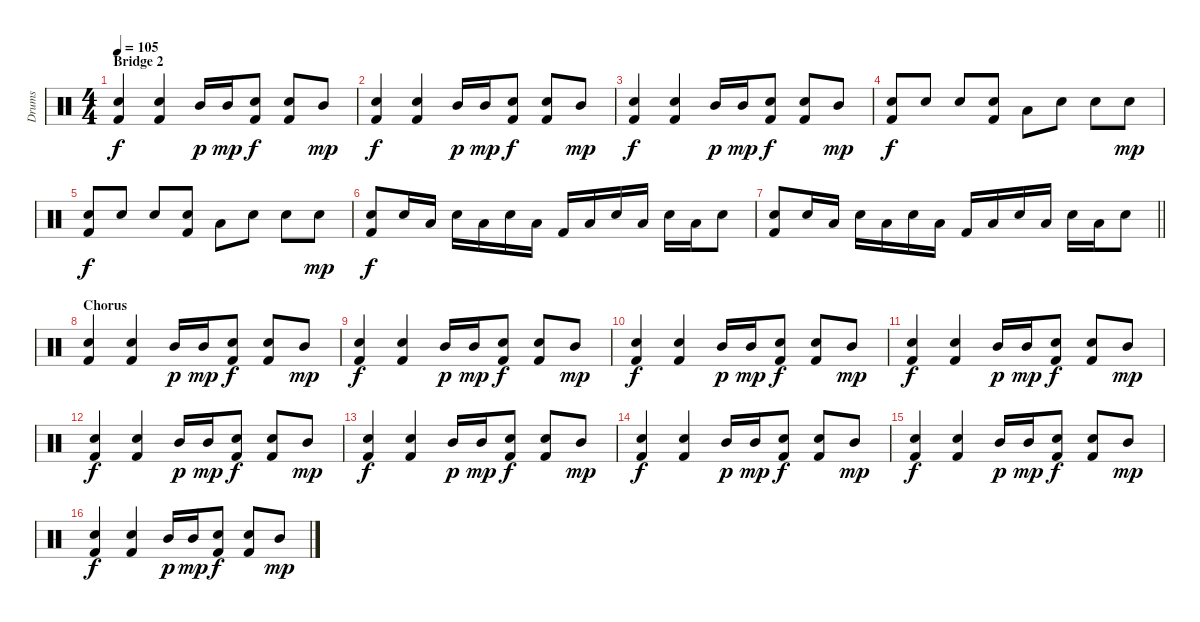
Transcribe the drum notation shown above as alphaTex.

\track ("Drums" "Drums") {instrument percussion}
\staff {score}
\articulation defaults
\ts (4 4)
\section ("" "Bridge 2")
\tempo 105
\clef neutral
\ks c
("Snare (hit) 2" "Kick (hit) 2").4{dy f} ("Snare (hit) 2" "Kick (hit) 2").4 "Mid Tom (hit)".16{dy p} "Mid Tom (hit)".16{dy mp} ("Snare (hit) 2" "Kick (hit) 2").8{dy f} ("Snare (hit) 2" "Kick (hit) 2").8 "Mid Tom (hit)".8{dy mp} |
("Snare (hit) 2" "Kick (hit) 2").4{dy f} ("Snare (hit) 2" "Kick (hit) 2").4 "Mid Tom (hit)".16{dy p} "Mid Tom (hit)".16{dy mp} ("Snare (hit) 2" "Kick (hit) 2").8{dy f} ("Snare (hit) 2" "Kick (hit) 2").8 "Mid Tom (hit)".8{dy mp} |
("Snare (hit) 2" "Kick (hit) 2").4{dy f} ("Snare (hit) 2" "Kick (hit) 2").4 "Mid Tom (hit)".16{dy p} "Mid Tom (hit)".16{dy mp} ("Snare (hit) 2" "Kick (hit) 2").8{dy f} ("Snare (hit) 2" "Kick (hit) 2").8 "Mid Tom (hit)".8{dy mp} |
("Snare (hit) 2" "Kick (hit) 2").8{dy f} "Snare (hit) 2".8 "Snare (hit) 2".8 ("Snare (hit) 2" "Kick (hit) 2").8 "Low Floor Tom (hit)".8 "Snare (hit) 2".8 "Snare (hit) 2".8 "Snare (hit) 2".8{dy mp} |
("Snare (hit) 2" "Kick (hit) 2").8{dy f} "Snare (hit) 2".8 "Snare (hit) 2".8 ("Snare (hit) 2" "Kick (hit) 2").8 "Low Floor Tom (hit)".8 "Snare (hit) 2".8 "Snare (hit) 2".8 "Snare (hit) 2".8{dy mp} |
("Snare (hit) 2" "Kick (hit) 2").8{dy f} "Snare (hit) 2".16 "Low Floor Tom (hit)".16 "Snare (hit) 2".16 "Low Floor Tom (hit)".16 "Snare (hit) 2".16 "Low Floor Tom (hit)".16 "Kick (hit) 2".16 "Low Floor Tom (hit)".16 "Snare (hit) 2".16 "Low Floor Tom (hit)".16 "Snare (hit) 2".16 "Low Floor Tom (hit)".16 "Snare (hit) 2".8 |
\barLineRight lightlight
("Snare (hit) 2" "Kick (hit) 2").8 "Snare (hit) 2".16 "Low Floor Tom (hit)".16 "Snare (hit) 2".16 "Low Floor Tom (hit)".16 "Snare (hit) 2".16 "Low Floor Tom (hit)".16 "Kick (hit) 2".16 "Low Floor Tom (hit)".16 "Snare (hit) 2".16 "Low Floor Tom (hit)".16 "Snare (hit) 2".16 "Low Floor Tom (hit)".16 "Snare (hit) 2".8 |
\section ("" "Chorus")
("Snare (hit) 2" "Kick (hit) 2").4 ("Snare (hit) 2" "Kick (hit) 2").4 "Mid Tom (hit)".16{dy p} "Mid Tom (hit)".16{dy mp} ("Snare (hit) 2" "Kick (hit) 2").8{dy f} ("Snare (hit) 2" "Kick (hit) 2").8 "Mid Tom (hit)".8{dy mp} |
("Snare (hit) 2" "Kick (hit) 2").4{dy f} ("Snare (hit) 2" "Kick (hit) 2").4 "Mid Tom (hit)".16{dy p} "Mid Tom (hit)".16{dy mp} ("Snare (hit) 2" "Kick (hit) 2").8{dy f} ("Snare (hit) 2" "Kick (hit) 2").8 "Mid Tom (hit)".8{dy mp} |
("Snare (hit) 2" "Kick (hit) 2").4{dy f} ("Snare (hit) 2" "Kick (hit) 2").4 "Mid Tom (hit)".16{dy p} "Mid Tom (hit)".16{dy mp} ("Snare (hit) 2" "Kick (hit) 2").8{dy f} ("Snare (hit) 2" "Kick (hit) 2").8 "Mid Tom (hit)".8{dy mp} |
("Snare (hit) 2" "Kick (hit) 2").4{dy f} ("Snare (hit) 2" "Kick (hit) 2").4 "Mid Tom (hit)".16{dy p} "Mid Tom (hit)".16{dy mp} ("Snare (hit) 2" "Kick (hit) 2").8{dy f} ("Snare (hit) 2" "Kick (hit) 2").8 "Mid Tom (hit)".8{dy mp} |
("Snare (hit) 2" "Kick (hit) 2").4{dy f} ("Snare (hit) 2" "Kick (hit) 2").4 "Mid Tom (hit)".16{dy p} "Mid Tom (hit)".16{dy mp} ("Snare (hit) 2" "Kick (hit) 2").8{dy f} ("Snare (hit) 2" "Kick (hit) 2").8 "Mid Tom (hit)".8{dy mp} |
("Snare (hit) 2" "Kick (hit) 2").4{dy f} ("Snare (hit) 2" "Kick (hit) 2").4 "Mid Tom (hit)".16{dy p} "Mid Tom (hit)".16{dy mp} ("Snare (hit) 2" "Kick (hit) 2").8{dy f} ("Snare (hit) 2" "Kick (hit) 2").8 "Mid Tom (hit)".8{dy mp} |
("Snare (hit) 2" "Kick (hit) 2").4{dy f} ("Snare (hit) 2" "Kick (hit) 2").4 "Mid Tom (hit)".16{dy p} "Mid Tom (hit)".16{dy mp} ("Snare (hit) 2" "Kick (hit) 2").8{dy f} ("Snare (hit) 2" "Kick (hit) 2").8 "Mid Tom (hit)".8{dy mp} |
("Snare (hit) 2" "Kick (hit) 2").4{dy f} ("Snare (hit) 2" "Kick (hit) 2").4 "Mid Tom (hit)".16{dy p} "Mid Tom (hit)".16{dy mp} ("Snare (hit) 2" "Kick (hit) 2").8{dy f} ("Snare (hit) 2" "Kick (hit) 2").8 "Mid Tom (hit)".8{dy mp} |
("Snare (hit) 2" "Kick (hit) 2").4{dy f} ("Snare (hit) 2" "Kick (hit) 2").4 "Mid Tom (hit)".16{dy p} "Mid Tom (hit)".16{dy mp} ("Snare (hit) 2" "Kick (hit) 2").8{dy f} ("Snare (hit) 2" "Kick (hit) 2").8 "Mid Tom (hit)".8{dy mp}
